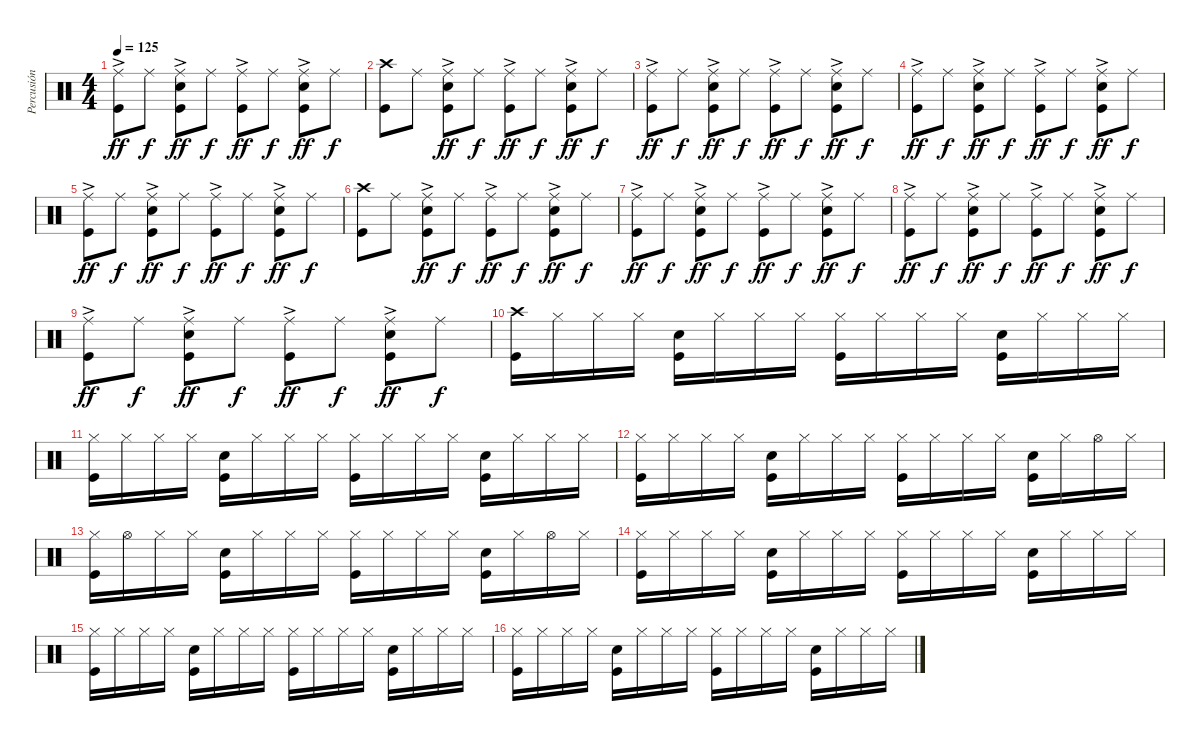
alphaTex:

\track ("Percusión" "Percusión") {instrument percussion}
\staff {score}
\articulation defaults
\ts (4 4)
\tempo 125
\clef neutral
\ks c
("Ride (middle)"{ac} "Kick (hit)").8{dy ff} "Ride (middle)".8{dy f} ("Ride (middle)"{ac} "Snare (hit) 2" "Kick (hit)").8{dy ff} "Ride (middle)".8{dy f} ("Ride (middle)"{ac} "Kick (hit)").8{dy ff} "Ride (middle)".8{dy f} ("Ride (middle)"{ac} "Snare (hit) 2" "Kick (hit)").8{dy ff} "Ride (middle)".8{dy f} |
("Crash high (hit)" "Kick (hit)").8 "Ride (middle)".8 ("Ride (middle)"{ac} "Snare (hit) 2" "Kick (hit)").8{dy ff} "Ride (middle)".8{dy f} ("Ride (middle)"{ac} "Kick (hit)").8{dy ff} "Ride (middle)".8{dy f} ("Ride (middle)"{ac} "Snare (hit) 2" "Kick (hit)").8{dy ff} "Ride (middle)".8{dy f} |
("Ride (middle)"{ac} "Kick (hit)").8{dy ff} "Ride (middle)".8{dy f} ("Ride (middle)"{ac} "Snare (hit) 2" "Kick (hit)").8{dy ff} "Ride (middle)".8{dy f} ("Ride (middle)"{ac} "Kick (hit)").8{dy ff} "Ride (middle)".8{dy f} ("Ride (middle)"{ac} "Snare (hit) 2" "Kick (hit)").8{dy ff} "Ride (middle)".8{dy f} |
("Ride (middle)"{ac} "Kick (hit)").8{dy ff} "Ride (middle)".8{dy f} ("Ride (middle)"{ac} "Snare (hit) 2" "Kick (hit)").8{dy ff} "Ride (middle)".8{dy f} ("Ride (middle)"{ac} "Kick (hit)").8{dy ff} "Ride (middle)".8{dy f} ("Ride (middle)"{ac} "Snare (hit) 2" "Kick (hit)").8{dy ff} "Ride (middle)".8{dy f} |
("Ride (middle)"{ac} "Kick (hit)").8{dy ff} "Ride (middle)".8{dy f} ("Ride (middle)"{ac} "Snare (hit) 2" "Kick (hit)").8{dy ff} "Ride (middle)".8{dy f} ("Ride (middle)"{ac} "Kick (hit)").8{dy ff} "Ride (middle)".8{dy f} ("Ride (middle)"{ac} "Snare (hit) 2" "Kick (hit)").8{dy ff} "Ride (middle)".8{dy f} |
("Crash high (hit)" "Kick (hit)").8 "Ride (middle)".8 ("Ride (middle)"{ac} "Snare (hit) 2" "Kick (hit)").8{dy ff} "Ride (middle)".8{dy f} ("Ride (middle)"{ac} "Kick (hit)").8{dy ff} "Ride (middle)".8{dy f} ("Ride (middle)"{ac} "Snare (hit) 2" "Kick (hit)").8{dy ff} "Ride (middle)".8{dy f} |
("Ride (middle)"{ac} "Kick (hit)").8{dy ff} "Ride (middle)".8{dy f} ("Ride (middle)"{ac} "Snare (hit) 2" "Kick (hit)").8{dy ff} "Ride (middle)".8{dy f} ("Ride (middle)"{ac} "Kick (hit)").8{dy ff} "Ride (middle)".8{dy f} ("Ride (middle)"{ac} "Snare (hit) 2" "Kick (hit)").8{dy ff} "Ride (middle)".8{dy f} |
("Ride (middle)"{ac} "Kick (hit)").8{dy ff} "Ride (middle)".8{dy f} ("Ride (middle)"{ac} "Snare (hit) 2" "Kick (hit)").8{dy ff} "Ride (middle)".8{dy f} ("Ride (middle)"{ac} "Kick (hit)").8{dy ff} "Ride (middle)".8{dy f} ("Ride (middle)"{ac} "Snare (hit) 2" "Kick (hit)").8{dy ff} "Ride (middle)".8{dy f} |
("Ride (middle)"{ac} "Kick (hit)").8{dy ff} "Ride (middle)".8{dy f} ("Ride (middle)"{ac} "Snare (hit) 2" "Kick (hit)").8{dy ff} "Ride (middle)".8{dy f} ("Ride (middle)"{ac} "Kick (hit)").8{dy ff} "Ride (middle)".8{dy f} ("Ride (middle)"{ac} "Snare (hit) 2" "Kick (hit)").8{dy ff} "Ride (middle)".8{dy f} |
("Crash high (hit)" "Kick (hit)").16 "Hi-Hat (closed)".16 "Hi-Hat (closed)".16 "Hi-Hat (closed)".16 ("Snare (hit) 2" "Kick (hit)").16 "Hi-Hat (closed)".16 "Hi-Hat (closed)".16 "Hi-Hat (closed)".16 ("Hi-Hat (closed)" "Kick (hit)").16 "Hi-Hat (closed)".16 "Hi-Hat (closed)".16 "Hi-Hat (closed)".16 ("Snare (hit) 2" "Kick (hit)").16 "Hi-Hat (closed)".16 "Hi-Hat (closed)".16 "Hi-Hat (closed)".16 |
("Hi-Hat (closed)" "Kick (hit)").16 "Hi-Hat (closed)".16 "Hi-Hat (closed)".16 "Hi-Hat (closed)".16 ("Snare (hit) 2" "Kick (hit)").16 "Hi-Hat (closed)".16 "Hi-Hat (closed)".16 "Hi-Hat (closed)".16 ("Hi-Hat (closed)" "Kick (hit)").16 "Hi-Hat (closed)".16 "Hi-Hat (closed)".16 "Hi-Hat (closed)".16 ("Snare (hit) 2" "Kick (hit)").16 "Hi-Hat (closed)".16 "Hi-Hat (closed)".16 "Hi-Hat (closed)".16 |
("Hi-Hat (closed)" "Kick (hit)").16 "Hi-Hat (closed)".16 "Hi-Hat (closed)".16 "Hi-Hat (closed)".16 ("Snare (hit) 2" "Kick (hit)").16 "Hi-Hat (closed)".16 "Hi-Hat (closed)".16 "Hi-Hat (closed)".16 ("Hi-Hat (closed)" "Kick (hit)").16 "Hi-Hat (closed)".16 "Hi-Hat (closed)".16 "Hi-Hat (closed)".16 ("Snare (hit) 2" "Kick (hit)").16 "Hi-Hat (closed)".16 "Hi-Hat (open)".16 "Hi-Hat (closed)".16 |
("Hi-Hat (closed)" "Kick (hit)").16 "Hi-Hat (open)".16 "Hi-Hat (closed)".16 "Hi-Hat (closed)".16 ("Snare (hit) 2" "Kick (hit)").16 "Hi-Hat (closed)".16 "Hi-Hat (closed)".16 "Hi-Hat (closed)".16 ("Hi-Hat (closed)" "Kick (hit)").16 "Hi-Hat (closed)".16 "Hi-Hat (closed)".16 "Hi-Hat (closed)".16 ("Snare (hit) 2" "Kick (hit)").16 "Hi-Hat (closed)".16 "Hi-Hat (open)".16 "Hi-Hat (closed)".16 |
("Hi-Hat (closed)" "Kick (hit)").16 "Hi-Hat (closed)".16 "Hi-Hat (closed)".16 "Hi-Hat (closed)".16 ("Snare (hit) 2" "Kick (hit)").16 "Hi-Hat (closed)".16 "Hi-Hat (closed)".16 "Hi-Hat (closed)".16 ("Hi-Hat (closed)" "Kick (hit)").16 "Hi-Hat (closed)".16 "Hi-Hat (closed)".16 "Hi-Hat (closed)".16 ("Snare (hit) 2" "Kick (hit)").16 "Hi-Hat (closed)".16 "Hi-Hat (closed)".16 "Hi-Hat (closed)".16 |
("Hi-Hat (closed)" "Kick (hit)").16 "Hi-Hat (closed)".16 "Hi-Hat (closed)".16 "Hi-Hat (closed)".16 ("Snare (hit) 2" "Kick (hit)").16 "Hi-Hat (closed)".16 "Hi-Hat (closed)".16 "Hi-Hat (closed)".16 ("Hi-Hat (closed)" "Kick (hit)").16 "Hi-Hat (closed)".16 "Hi-Hat (closed)".16 "Hi-Hat (closed)".16 ("Snare (hit) 2" "Kick (hit)").16 "Hi-Hat (closed)".16 "Hi-Hat (closed)".16 "Hi-Hat (closed)".16 |
("Hi-Hat (closed)" "Kick (hit)").16 "Hi-Hat (closed)".16 "Hi-Hat (closed)".16 "Hi-Hat (closed)".16 ("Snare (hit) 2" "Kick (hit)").16 "Hi-Hat (closed)".16 "Hi-Hat (closed)".16 "Hi-Hat (closed)".16 ("Hi-Hat (closed)" "Kick (hit)").16 "Hi-Hat (closed)".16 "Hi-Hat (closed)".16 "Hi-Hat (closed)".16 ("Snare (hit) 2" "Kick (hit)").16 "Hi-Hat (closed)".16 "Hi-Hat (closed)".16 "Hi-Hat (closed)".16
